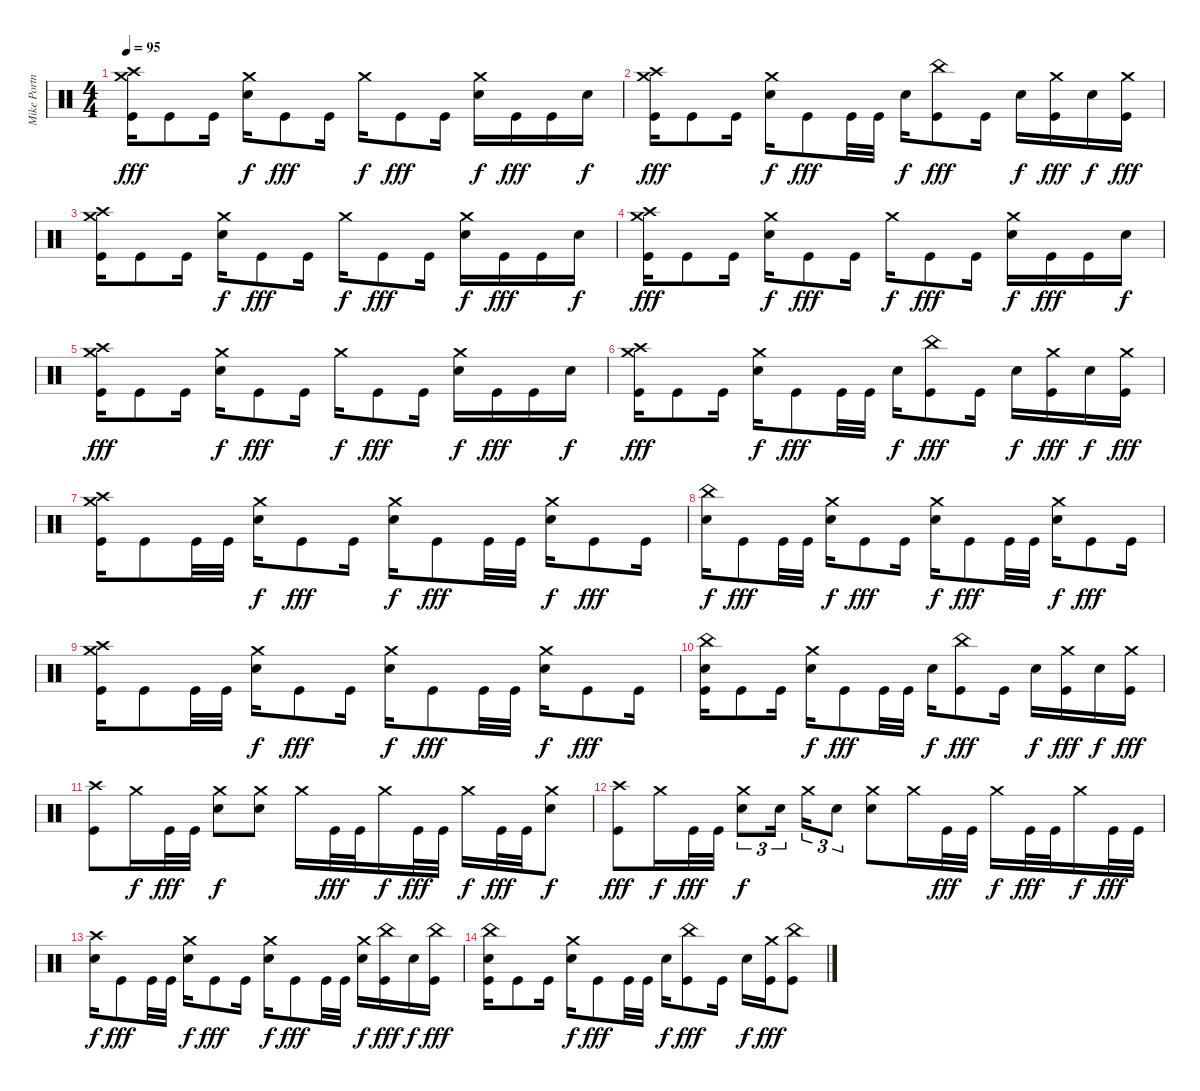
\track ("Mike Portnoy" "Mike Portn") {instrument percussion}
\staff {score}
\articulation defaults
\ts (4 4)
\tempo 95
\clef neutral
\ks c
("Crash high (hit)" "Crash medium (hit)" "Kick (hit)").16{dy fff} "Kick (hit)".8 "Kick (hit)".16 ("Crash medium (hit)" "Electric Snare (hit)").16{dy f} "Kick (hit)".8{dy fff} "Kick (hit)".16 "Crash medium (hit)".16{dy f} "Kick (hit)".8{dy fff} "Kick (hit)".16 ("Crash medium (hit)" "Electric Snare (hit)").16{dy f} "Kick (hit)".16{dy fff} "Kick (hit)".16 "Electric Snare (hit)".16{dy f} |
("Crash high (hit)" "Crash medium (hit)" "Kick (hit)").16{dy fff} "Kick (hit)".8 "Kick (hit)".16 ("Crash medium (hit)" "Electric Snare (hit)").16{dy f} "Kick (hit)".8{dy fff} "Kick (hit)".32 "Kick (hit)".32 "Electric Snare (hit)".16{dy f} ("China (hit)" "Kick (hit)").8{dy fff} "Kick (hit)".16 "Electric Snare (hit)".16{dy f} ("Crash medium (hit)" "Kick (hit)").16{dy fff} "Electric Snare (hit)".16{dy f} ("Crash medium (hit)" "Kick (hit)").16{dy fff} |
("Crash high (hit)" "Crash medium (hit)" "Kick (hit)").16 "Kick (hit)".8 "Kick (hit)".16 ("Crash medium (hit)" "Electric Snare (hit)").16{dy f} "Kick (hit)".8{dy fff} "Kick (hit)".16 "Crash medium (hit)".16{dy f} "Kick (hit)".8{dy fff} "Kick (hit)".16 ("Crash medium (hit)" "Electric Snare (hit)").16{dy f} "Kick (hit)".16{dy fff} "Kick (hit)".16 "Electric Snare (hit)".16{dy f} |
("Crash high (hit)" "Crash medium (hit)" "Kick (hit)").16{dy fff} "Kick (hit)".8 "Kick (hit)".16 ("Crash medium (hit)" "Electric Snare (hit)").16{dy f} "Kick (hit)".8{dy fff} "Kick (hit)".16 "Crash medium (hit)".16{dy f} "Kick (hit)".8{dy fff} "Kick (hit)".16 ("Crash medium (hit)" "Electric Snare (hit)").16{dy f} "Kick (hit)".16{dy fff} "Kick (hit)".16 "Electric Snare (hit)".16{dy f} |
("Crash high (hit)" "Crash medium (hit)" "Kick (hit)").16{dy fff} "Kick (hit)".8 "Kick (hit)".16 ("Crash medium (hit)" "Electric Snare (hit)").16{dy f} "Kick (hit)".8{dy fff} "Kick (hit)".16 "Crash medium (hit)".16{dy f} "Kick (hit)".8{dy fff} "Kick (hit)".16 ("Crash medium (hit)" "Electric Snare (hit)").16{dy f} "Kick (hit)".16{dy fff} "Kick (hit)".16 "Electric Snare (hit)".16{dy f} |
("Crash high (hit)" "Crash medium (hit)" "Kick (hit)").16{dy fff} "Kick (hit)".8 "Kick (hit)".16 ("Crash medium (hit)" "Electric Snare (hit)").16{dy f} "Kick (hit)".8{dy fff} "Kick (hit)".32 "Kick (hit)".32 "Electric Snare (hit)".16{dy f} ("China (hit)" "Kick (hit)").8{dy fff} "Kick (hit)".16 "Electric Snare (hit)".16{dy f} ("Crash medium (hit)" "Kick (hit)").16{dy fff} "Electric Snare (hit)".16{dy f} ("Crash medium (hit)" "Kick (hit)").16{dy fff} |
("Crash high (hit)" "Crash medium (hit)" "Kick (hit)").16 "Kick (hit)".8 "Kick (hit)".32 "Kick (hit)".32 ("Crash medium (hit)" "Electric Snare (hit)").16{dy f} "Kick (hit)".8{dy fff} "Kick (hit)".16 ("Crash medium (hit)" "Electric Snare (hit)").16{dy f} "Kick (hit)".8{dy fff} "Kick (hit)".32 "Kick (hit)".32 ("Crash medium (hit)" "Electric Snare (hit)").16{dy f} "Kick (hit)".8{dy fff} "Kick (hit)".16 |
("China (hit)" "Electric Snare (hit)").16{dy f} "Kick (hit)".8{dy fff} "Kick (hit)".32 "Kick (hit)".32 ("Crash medium (hit)" "Electric Snare (hit)").16{dy f} "Kick (hit)".8{dy fff} "Kick (hit)".16 ("Crash medium (hit)" "Electric Snare (hit)").16{dy f} "Kick (hit)".8{dy fff} "Kick (hit)".32 "Kick (hit)".32 ("Crash medium (hit)" "Electric Snare (hit)").16{dy f} "Kick (hit)".8{dy fff} "Kick (hit)".16 |
("Crash high (hit)" "Crash medium (hit)" "Kick (hit)").16 "Kick (hit)".8 "Kick (hit)".32 "Kick (hit)".32 ("Crash medium (hit)" "Electric Snare (hit)").16{dy f} "Kick (hit)".8{dy fff} "Kick (hit)".16 ("Crash medium (hit)" "Electric Snare (hit)").16{dy f} "Kick (hit)".8{dy fff} "Kick (hit)".32 "Kick (hit)".32 ("Crash medium (hit)" "Electric Snare (hit)").16{dy f} "Kick (hit)".8{dy fff} "Kick (hit)".16 |
("China (hit)" "Electric Snare (hit)" "Kick (hit)").16 "Kick (hit)".8 "Kick (hit)".16 ("Crash medium (hit)" "Electric Snare (hit)").16{dy f} "Kick (hit)".8{dy fff} "Kick (hit)".32 "Kick (hit)".32 "Electric Snare (hit)".16{dy f} ("China (hit)" "Kick (hit)").8{dy fff} "Kick (hit)".16 "Electric Snare (hit)".16{dy f} ("Crash medium (hit)" "Kick (hit)").16{dy fff} "Electric Snare (hit)".16{dy f} ("Crash medium (hit)" "Kick (hit)").16{dy fff} |
("Crash high (hit)" "Kick (hit)").8 "Crash medium (hit)".16{dy f} "Kick (hit)".32{dy fff} "Kick (hit)".32 ("Crash medium (hit)" "Electric Snare (hit)").8{dy f} ("Crash medium (hit)" "Electric Snare (hit)").8 "Crash medium (hit)".16 "Kick (hit)".32{dy fff} "Kick (hit)".32 "Crash medium (hit)".16{dy f} "Kick (hit)".32{dy fff} "Kick (hit)".32 "Crash medium (hit)".16{dy f} "Kick (hit)".32{dy fff} "Kick (hit)".32 ("Crash medium (hit)" "Electric Snare (hit)").8{dy f} |
("Crash high (hit)" "Kick (hit)").8{dy fff} "Crash medium (hit)".16{dy f} "Kick (hit)".32{dy fff} "Kick (hit)".32 ("Crash medium (hit)" "Electric Snare (hit)").8{tu (3 2) dy f} "Electric Snare (hit)".16{tu (3 2)} "Crash medium (hit)".16{tu (3 2)} "Electric Snare (hit)".8{tu (3 2)} ("Crash medium (hit)" "Electric Snare (hit)").8 "Crash medium (hit)".16 "Kick (hit)".32{dy fff} "Kick (hit)".32 "Crash medium (hit)".16{dy f} "Kick (hit)".32{dy fff} "Kick (hit)".32 "Crash medium (hit)".16{dy f} "Kick (hit)".32{dy fff} "Kick (hit)".32 |
("Crash high (hit)" "Electric Snare (hit)").16{dy f} "Kick (hit)".8{dy fff} "Kick (hit)".32 "Kick (hit)".32 ("Crash medium (hit)" "Electric Snare (hit)").16{dy f} "Kick (hit)".8{dy fff} "Kick (hit)".16 ("Crash medium (hit)" "Electric Snare (hit)").16{dy f} "Kick (hit)".8{dy fff} "Kick (hit)".32 "Kick (hit)".32 ("Crash medium (hit)" "Electric Snare (hit)").16{dy f} ("China (hit)" "Kick (hit)").16{dy fff} "Electric Snare (hit)".16{dy f} ("China (hit)" "Kick (hit)").16{dy fff} |
("China (hit)" "Electric Snare (hit)" "Kick (hit)").16 "Kick (hit)".8 "Kick (hit)".16 ("Crash medium (hit)" "Electric Snare (hit)").16{dy f} "Kick (hit)".8{dy fff} "Kick (hit)".32 "Kick (hit)".32 "Electric Snare (hit)".16{dy f} ("China (hit)" "Kick (hit)").8{dy fff} "Kick (hit)".16 "Electric Snare (hit)".16{dy f} ("Crash medium (hit)" "Kick (hit)").16{dy fff} ("China (hit)" "Kick (hit)").8
